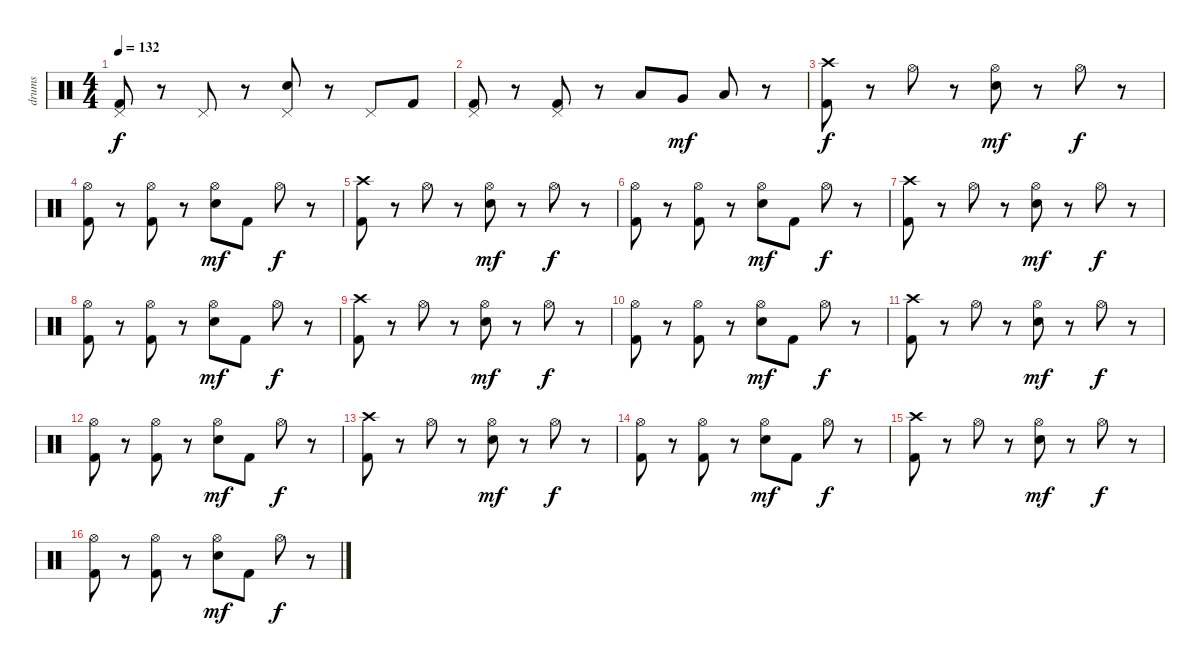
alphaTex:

\track ("drums" "drums") {instrument percussion}
\staff {score}
\articulation defaults
\ts (4 4)
\tempo 132
\clef neutral
\ks c
("Pedal Hi-Hat (hit)" "Kick (hit) 2").8{dy f} r.8 "Pedal Hi-Hat (hit)".8 r.8 ("Pedal Hi-Hat (hit)" "Electric Snare (hit)").8 r.8 "Pedal Hi-Hat (hit)".8 "Kick (hit) 2".8 |
("Pedal Hi-Hat (hit)" "Kick (hit) 2").8 r.8 ("Pedal Hi-Hat (hit)" "Kick (hit) 2").8 r.8 "Low Floor Tom (hit)".8 "Very Low Tom (hit)".8{dy mf} "Low Tom (hit)".8 r.8 |
("Crash high (hit)" "Kick (hit) 2").8{dy f} r.8 "Hi-Hat (open)".8 r.8 ("Hi-Hat (open)" "Snare (hit) 2").8{dy mf} r.8 "Hi-Hat (open)".8{dy f} r.8 |
("Hi-Hat (open)" "Kick (hit) 2").8 r.8 ("Hi-Hat (open)" "Kick (hit) 2").8 r.8 ("Hi-Hat (open)" "Snare (hit) 2").8{dy mf} "Kick (hit) 2".8 "Hi-Hat (open)".8{dy f} r.8 |
("Crash high (hit)" "Kick (hit) 2").8 r.8 "Hi-Hat (open)".8 r.8 ("Hi-Hat (open)" "Snare (hit) 2").8{dy mf} r.8 "Hi-Hat (open)".8{dy f} r.8 |
("Hi-Hat (open)" "Kick (hit) 2").8 r.8 ("Hi-Hat (open)" "Kick (hit) 2").8 r.8 ("Hi-Hat (open)" "Snare (hit) 2").8{dy mf} "Kick (hit) 2".8 "Hi-Hat (open)".8{dy f} r.8 |
("Crash high (hit)" "Kick (hit) 2").8 r.8 "Hi-Hat (open)".8 r.8 ("Hi-Hat (open)" "Snare (hit) 2").8{dy mf} r.8 "Hi-Hat (open)".8{dy f} r.8 |
("Hi-Hat (open)" "Kick (hit) 2").8 r.8 ("Hi-Hat (open)" "Kick (hit) 2").8 r.8 ("Hi-Hat (open)" "Snare (hit) 2").8{dy mf} "Kick (hit) 2".8 "Hi-Hat (open)".8{dy f} r.8 |
("Crash high (hit)" "Kick (hit) 2").8 r.8 "Hi-Hat (open)".8 r.8 ("Hi-Hat (open)" "Snare (hit) 2").8{dy mf} r.8 "Hi-Hat (open)".8{dy f} r.8 |
("Hi-Hat (open)" "Kick (hit) 2").8 r.8 ("Hi-Hat (open)" "Kick (hit) 2").8 r.8 ("Hi-Hat (open)" "Snare (hit) 2").8{dy mf} "Kick (hit) 2".8 "Hi-Hat (open)".8{dy f} r.8 |
("Crash high (hit)" "Kick (hit) 2").8 r.8 "Hi-Hat (open)".8 r.8 ("Hi-Hat (open)" "Snare (hit) 2").8{dy mf} r.8 "Hi-Hat (open)".8{dy f} r.8 |
("Hi-Hat (open)" "Kick (hit) 2").8 r.8 ("Hi-Hat (open)" "Kick (hit) 2").8 r.8 ("Hi-Hat (open)" "Snare (hit) 2").8{dy mf} "Kick (hit) 2".8 "Hi-Hat (open)".8{dy f} r.8 |
("Crash high (hit)" "Kick (hit) 2").8 r.8 "Hi-Hat (open)".8 r.8 ("Hi-Hat (open)" "Snare (hit) 2").8{dy mf} r.8 "Hi-Hat (open)".8{dy f} r.8 |
("Hi-Hat (open)" "Kick (hit) 2").8 r.8 ("Hi-Hat (open)" "Kick (hit) 2").8 r.8 ("Hi-Hat (open)" "Snare (hit) 2").8{dy mf} "Kick (hit) 2".8 "Hi-Hat (open)".8{dy f} r.8 |
("Crash high (hit)" "Kick (hit) 2").8 r.8 "Hi-Hat (open)".8 r.8 ("Hi-Hat (open)" "Snare (hit) 2").8{dy mf} r.8 "Hi-Hat (open)".8{dy f} r.8 |
("Hi-Hat (open)" "Kick (hit) 2").8 r.8 ("Hi-Hat (open)" "Kick (hit) 2").8 r.8 ("Hi-Hat (open)" "Snare (hit) 2").8{dy mf} "Kick (hit) 2".8 "Hi-Hat (open)".8{dy f} r.8
